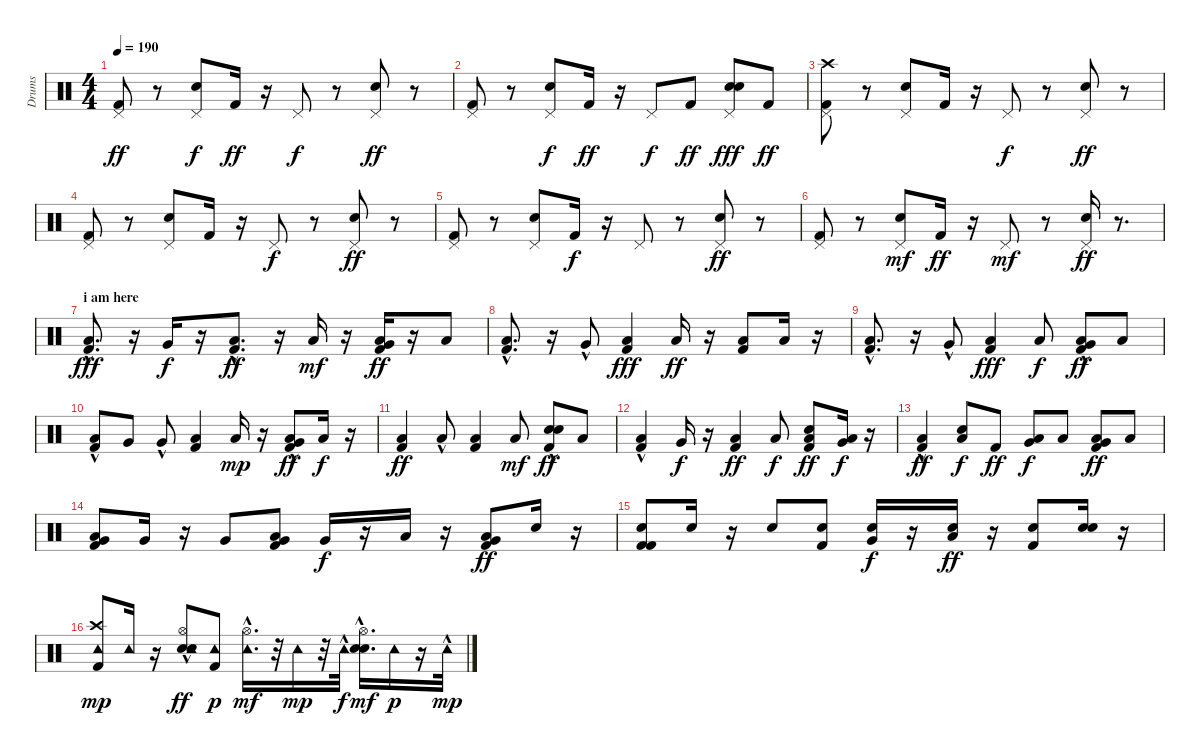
\track ("Drums" "Drums") {instrument percussion}
\staff {score}
\articulation defaults
\ts (4 4)
\tempo 190
\clef neutral
\ks c
("Kick (hit) 2" "Pedal Hi-Hat (hit)").8{dy ff} r.8 ("Snare (hit) 2" "Pedal Hi-Hat (hit)").8{dy f} "Kick (hit) 2".16{dy ff} r.16 "Pedal Hi-Hat (hit)".8{dy f} r.8 ("Snare (hit) 2" "Pedal Hi-Hat (hit)").8{dy ff} r.8 |
("Kick (hit) 2" "Pedal Hi-Hat (hit)").8 r.8 ("Snare (hit) 2" "Pedal Hi-Hat (hit)").8{dy f} "Kick (hit) 2".16{dy ff} r.16 "Pedal Hi-Hat (hit)".8{dy f} "Kick (hit) 2".8{dy ff} ("Electric Snare (hit)" "Snare (hit) 2" "Pedal Hi-Hat (hit)").8{dy fff} "Kick (hit) 2".8{dy ff} |
("Pedal Hi-Hat (hit)" "Crash high (hit)" "Kick (hit) 2").8 r.8 ("Pedal Hi-Hat (hit)" "Snare (hit) 2").8 "Kick (hit) 2".16 r.16 "Pedal Hi-Hat (hit)".8{dy f} r.8 ("Snare (hit) 2" "Pedal Hi-Hat (hit)").8{dy ff} r.8 |
("Kick (hit) 2" "Pedal Hi-Hat (hit)").8 r.8 ("Snare (hit) 2" "Pedal Hi-Hat (hit)").8 "Kick (hit) 2".16 r.16 "Pedal Hi-Hat (hit)".8{dy f} r.8 ("Pedal Hi-Hat (hit)" "Snare (hit) 2").8{dy ff} r.8 |
("Pedal Hi-Hat (hit)" "Kick (hit) 2").8 r.8 ("Snare (hit) 2" "Pedal Hi-Hat (hit)").8 "Kick (hit) 2".16{dy f} r.16 "Pedal Hi-Hat (hit)".8 r.8 ("Snare (hit) 2" "Pedal Hi-Hat (hit)").8{dy ff} r.8 |
("Kick (hit) 2" "Pedal Hi-Hat (hit)").8 r.8 ("Snare (hit) 2" "Pedal Hi-Hat (hit)").8{dy mf} "Kick (hit) 2".16{dy ff} r.16 "Pedal Hi-Hat (hit)".8{dy mf} r.8 ("Pedal Hi-Hat (hit)" "Snare (hit) 2").16{dy ff} r.8{d} |
\section ("" "i am here")
("Low Tom (hit)"{hac} "Kick (hit) 2"{hac}).8{d dy fff} r.16 "Very Low Tom (hit)".16{dy f} r.16 ("Kick (hit) 2"{hac} "Low Tom (hit)"{hac}).8{d dy ff} r.16 "Low Tom (hit)".16{dy mf} r.16 ("Very Low Tom (hit)" "Low Floor Tom (hit)" "Kick (hit) 2").16{dy ff} r.16 "Low Tom (hit)".8 |
("Low Tom (hit)"{hac} "Kick (hit) 2"{hac}).8{d} r.16 "Very Low Tom (hit)"{hac}.8 ("Low Tom (hit)" "Kick (hit) 2").4{dy fff} "Low Tom (hit)".16{dy ff} r.16 ("Low Tom (hit)" "Kick (hit) 2").8 "Low Floor Tom (hit)".16 r.16 |
("Low Tom (hit)"{hac} "Kick (hit) 2"{hac}).8{d} r.16 "Very Low Tom (hit)"{hac}.8 ("Low Tom (hit)" "Kick (hit) 2").4{dy fff} "Low Tom (hit)".8{dy f} ("Low Floor Tom (hit)"{hac} "Very Low Tom (hit)"{hac} "Kick (hit) 2").8{dy ff} "Low Tom (hit)".8 |
("Kick (hit) 2"{hac} "Low Tom (hit)").8 "Very Low Tom (hit)".8 "Very Low Tom (hit)"{hac}.8 ("Kick (hit) 2" "Low Tom (hit)").4 "Low Tom (hit)".16{dy mp} r.16 ("Low Floor Tom (hit)"{hac} "Very Low Tom (hit)"{hac} "Kick (hit) 2").8{dy ff} "Low Tom (hit)".16{dy f} r.16 |
("Kick (hit) 2" "Low Tom (hit)").4{dy ff} "Low Floor Tom (hit)"{hac}.8 ("Kick (hit) 2" "Low Tom (hit)").4 "Low Tom (hit)".8{dy mf} ("Kick (hit) 2" "Electric Snare (hit)" "Snare (hit) 2"{hac}).8{dy ff} "Low Tom (hit)".8 |
("Kick (hit) 2" "Low Tom (hit)"{hac}).4 "Very Low Tom (hit)".16{dy f} r.16 ("Kick (hit) 2" "Low Tom (hit)").4{dy ff} "Low Tom (hit)".8{dy f} ("Kick (hit) 2" "Snare (hit) 2" "Low Floor Tom (hit)").8{dy ff} ("Low Tom (hit)" "Very Low Tom (hit)").16{dy f} r.16 |
("Kick (hit) 2" "Low Tom (hit)"{hac}).4{dy ff} ("Snare (hit) 2" "Low Tom (hit)").8{dy f} "Kick (hit) 2".8{dy ff} ("Low Tom (hit)" "Very Low Tom (hit)").8{dy f} "Low Tom (hit)".8 ("Kick (hit) 2" "Low Floor Tom (hit)" "Very Low Tom (hit)").8{dy ff} "Low Tom (hit)".8 |
("Kick (hit) 2" "Low Tom (hit)" "Very Low Tom (hit)").8 "Very Low Tom (hit)".16 r.16 "Very Low Tom (hit)".8 ("Kick (hit) 2" "Low Tom (hit)" "Very Low Tom (hit)").8 "Very Low Tom (hit)".16{dy f} r.16 "Low Floor Tom (hit)".16 r.16 ("Kick (hit) 2" "Low Tom (hit)" "Very Low Tom (hit)").8{dy ff} "Electric Snare (hit)".16 r.16 |
("Kick (hit) 2" "Kick (hit) 2" "Snare (hit) 2").8 "Snare (hit) 2".16 r.16 "Snare (hit) 2".8 ("Kick (hit) 2" "Snare (hit) 2").8 ("Snare (hit) 2" "Very Low Tom (hit)").16{dy f} r.16 ("Snare (hit) 2" "Low Floor Tom (hit)").16{dy ff} r.16 ("Kick (hit) 2" "Snare (hit) 2").8 ("Electric Snare (hit)" "Snare (hit) 2").16 r.16 |
("Kick (hit) 2" "Crash high (hit)" "Tambourine (hit)").8{dy mp} "Tambourine (hit)".16 r.16 ("Snare (hit) 2" "Hi-Hat (open)" "Tambourine (hit)"{hac} "Hand Clap (hit)"{hac}).8{dy ff} ("Kick (hit) 2" "Tambourine (hit)").8{dy p} ("Tambourine (hit)"{hac} "Hi-Hat (open)").16{d dy mf} r.32 "Tambourine (hit)".16{dy mp} r.32 "Tambourine (hit)"{hac}.32{dy f} ("Snare (hit) 2" "Hi-Hat (open)" "Hand Clap (hit)"{hac}).16{d dy mf} "Tambourine (hit)".16{dy p} r.16 "Tambourine (hit)"{hac}.32{dy mp}
